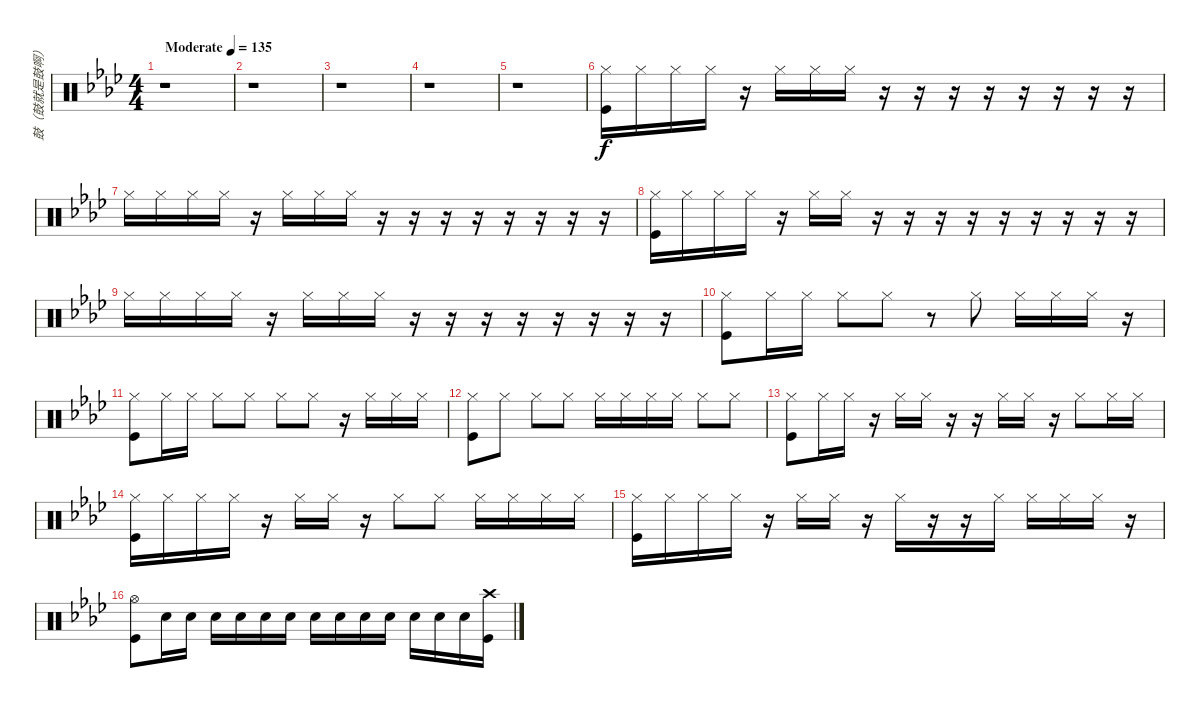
\track ("鼓（鼓就是鼓啊）" "鼓（鼓就是鼓啊）") {instrument percussion}
\staff {score}
\articulation defaults
\ts (4 4)
\tempo (135 "Moderate")
\clef neutral
\ks ab
r.1{dy f} |
r.1 |
r.1 |
r.1 |
r.1 |
("Hi-Hat (closed)" "Kick (hit)").16 "Hi-Hat (closed)".16 "Hi-Hat (closed)".16 "Hi-Hat (closed)".16 r.16 "Hi-Hat (closed)".16 "Hi-Hat (closed)".16 "Hi-Hat (closed)".16 r.16 r.16 r.16 r.16 r.16 r.16 r.16 r.16 |
"Hi-Hat (closed)".16 "Hi-Hat (closed)".16 "Hi-Hat (closed)".16 "Hi-Hat (closed)".16 r.16 "Hi-Hat (closed)".16 "Hi-Hat (closed)".16 "Hi-Hat (closed)".16 r.16 r.16 r.16 r.16 r.16 r.16 r.16 r.16 |
("Hi-Hat (closed)" "Kick (hit)").16 "Hi-Hat (closed)".16 "Hi-Hat (closed)".16 "Hi-Hat (closed)".16 r.16 "Hi-Hat (closed)".16 "Hi-Hat (closed)".16 r.16 r.16 r.16 r.16 r.16 r.16 r.16 r.16 r.16 |
"Hi-Hat (closed)".16 "Hi-Hat (closed)".16 "Hi-Hat (closed)".16 "Hi-Hat (closed)".16 r.16 "Hi-Hat (closed)".16 "Hi-Hat (closed)".16 "Hi-Hat (closed)".16 r.16 r.16 r.16 r.16 r.16 r.16 r.16 r.16 |
("Hi-Hat (closed)" "Kick (hit)").8 "Hi-Hat (closed)".16 "Hi-Hat (closed)".16 "Hi-Hat (closed)".8 "Hi-Hat (closed)".8 r.8 "Hi-Hat (closed)".8 "Hi-Hat (closed)".16 "Hi-Hat (closed)".16 "Hi-Hat (closed)".16 r.16 |
("Hi-Hat (closed)" "Kick (hit)").8 "Hi-Hat (closed)".16 "Hi-Hat (closed)".16 "Hi-Hat (closed)".8 "Hi-Hat (closed)".8 "Hi-Hat (closed)".8 "Hi-Hat (closed)".8 r.16 "Hi-Hat (closed)".16 "Hi-Hat (closed)".16 "Hi-Hat (closed)".16 |
("Hi-Hat (closed)" "Kick (hit)").8 "Hi-Hat (closed)".8 "Hi-Hat (closed)".8 "Hi-Hat (closed)".8 "Hi-Hat (closed)".16 "Hi-Hat (closed)".16 "Hi-Hat (closed)".16 "Hi-Hat (closed)".16 "Hi-Hat (closed)".8 "Hi-Hat (closed)".8 |
("Hi-Hat (closed)" "Kick (hit)").8 "Hi-Hat (closed)".16 "Hi-Hat (closed)".16 r.16 "Hi-Hat (closed)".16 "Hi-Hat (closed)".16 r.16 r.16 "Hi-Hat (closed)".16 "Hi-Hat (closed)".16 r.16 "Hi-Hat (closed)".8 "Hi-Hat (closed)".16 "Hi-Hat (closed)".16 |
("Hi-Hat (closed)" "Kick (hit)").16 "Hi-Hat (closed)".16 "Hi-Hat (closed)".16 "Hi-Hat (closed)".16 r.16 "Hi-Hat (closed)".16 "Hi-Hat (closed)".16 r.16 "Hi-Hat (closed)".8 "Hi-Hat (closed)".8 "Hi-Hat (closed)".16 "Hi-Hat (closed)".16 "Hi-Hat (closed)".16 "Hi-Hat (closed)".16 |
("Hi-Hat (closed)" "Kick (hit)").16 "Hi-Hat (closed)".16 "Hi-Hat (closed)".16 "Hi-Hat (closed)".16 r.16 "Hi-Hat (closed)".16 "Hi-Hat (closed)".16 r.16 "Hi-Hat (closed)".16 r.16 r.16 "Hi-Hat (closed)".16 "Hi-Hat (closed)".16 "Hi-Hat (closed)".16 "Hi-Hat (closed)".16 r.16 |
("Hi-Hat (open)" "Kick (hit)").8 "Snare (hit) 2".16 "Snare (hit) 2".16 "Snare (hit) 2".16 "Snare (hit) 2".16 "Snare (hit) 2".16 "Snare (hit) 2".16 "Snare (hit) 2".16 "Snare (hit) 2".16 "Snare (hit) 2".16 "Snare (hit) 2".16 "Snare (hit) 2".16 "Snare (hit) 2".16 "Snare (hit) 2".16 ("Crash high (hit)" "Kick (hit)").16
